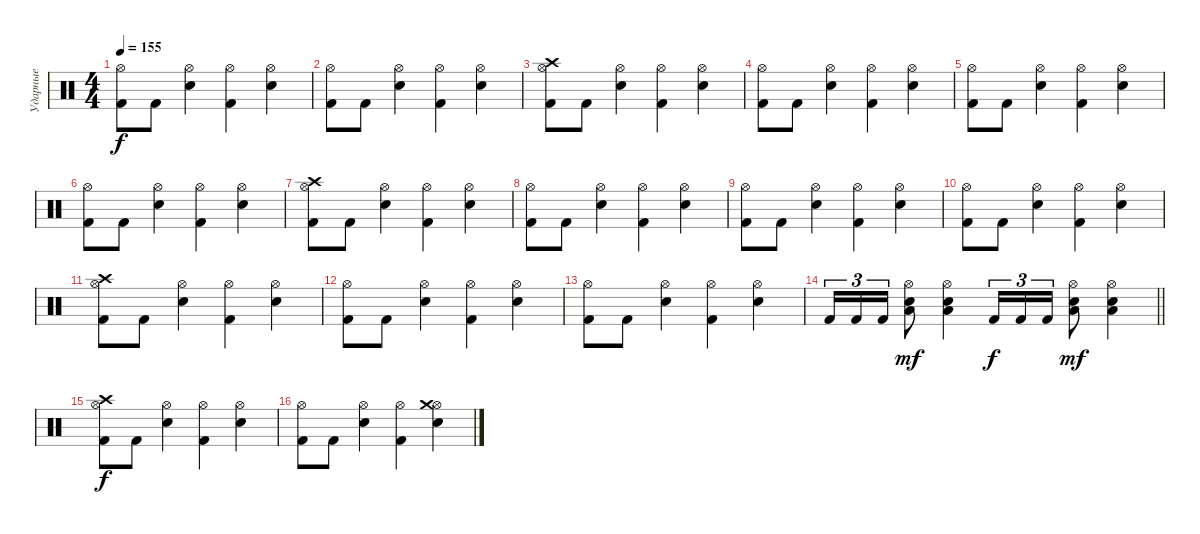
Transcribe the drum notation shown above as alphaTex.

\track ("Ударные" "Ударные") {instrument percussion}
\staff {score}
\articulation defaults
\ts (4 4)
\tempo 155
\clef neutral
\ks c
("Kick (hit) 2" "Hi-Hat (open)").8{dy f} "Kick (hit) 2".8 ("Snare (hit) 2" "Hi-Hat (open)").4 ("Kick (hit) 2" "Hi-Hat (open)").4 ("Snare (hit) 2" "Hi-Hat (open)").4 |
("Kick (hit) 2" "Hi-Hat (open)").8 "Kick (hit) 2".8 ("Snare (hit) 2" "Hi-Hat (open)").4 ("Kick (hit) 2" "Hi-Hat (open)").4 ("Snare (hit) 2" "Hi-Hat (open)").4 |
("Kick (hit) 2" "Hi-Hat (open)" "Crash high (hit)").8 "Kick (hit) 2".8 ("Snare (hit) 2" "Hi-Hat (open)").4 ("Kick (hit) 2" "Hi-Hat (open)").4 ("Snare (hit) 2" "Hi-Hat (open)").4 |
("Kick (hit) 2" "Hi-Hat (open)").8 "Kick (hit) 2".8 ("Snare (hit) 2" "Hi-Hat (open)").4 ("Kick (hit) 2" "Hi-Hat (open)").4 ("Snare (hit) 2" "Hi-Hat (open)").4 |
("Kick (hit) 2" "Hi-Hat (open)").8 "Kick (hit) 2".8 ("Snare (hit) 2" "Hi-Hat (open)").4 ("Kick (hit) 2" "Hi-Hat (open)").4 ("Snare (hit) 2" "Hi-Hat (open)").4 |
("Kick (hit) 2" "Hi-Hat (open)").8 "Kick (hit) 2".8 ("Snare (hit) 2" "Hi-Hat (open)").4 ("Kick (hit) 2" "Hi-Hat (open)").4 ("Snare (hit) 2" "Hi-Hat (open)").4 |
("Kick (hit) 2" "Hi-Hat (open)" "Crash high (hit)").8 "Kick (hit) 2".8 ("Snare (hit) 2" "Hi-Hat (open)").4 ("Kick (hit) 2" "Hi-Hat (open)").4 ("Snare (hit) 2" "Hi-Hat (open)").4 |
("Kick (hit) 2" "Hi-Hat (open)").8 "Kick (hit) 2".8 ("Snare (hit) 2" "Hi-Hat (open)").4 ("Kick (hit) 2" "Hi-Hat (open)").4 ("Snare (hit) 2" "Hi-Hat (open)").4 |
("Kick (hit) 2" "Hi-Hat (open)").8 "Kick (hit) 2".8 ("Snare (hit) 2" "Hi-Hat (open)").4 ("Kick (hit) 2" "Hi-Hat (open)").4 ("Snare (hit) 2" "Hi-Hat (open)").4 |
("Kick (hit) 2" "Hi-Hat (open)").8 "Kick (hit) 2".8 ("Snare (hit) 2" "Hi-Hat (open)").4 ("Kick (hit) 2" "Hi-Hat (open)").4 ("Snare (hit) 2" "Hi-Hat (open)").4 |
("Kick (hit) 2" "Hi-Hat (open)" "Crash high (hit)").8 "Kick (hit) 2".8 ("Snare (hit) 2" "Hi-Hat (open)").4 ("Kick (hit) 2" "Hi-Hat (open)").4 ("Snare (hit) 2" "Hi-Hat (open)").4 |
("Kick (hit) 2" "Hi-Hat (open)").8 "Kick (hit) 2".8 ("Snare (hit) 2" "Hi-Hat (open)").4 ("Kick (hit) 2" "Hi-Hat (open)").4 ("Snare (hit) 2" "Hi-Hat (open)").4 |
("Kick (hit) 2" "Hi-Hat (open)").8 "Kick (hit) 2".8 ("Snare (hit) 2" "Hi-Hat (open)").4 ("Kick (hit) 2" "Hi-Hat (open)").4 ("Snare (hit) 2" "Hi-Hat (open)").4 |
\barLineRight lightlight "Kick (hit) 2".16{tu (3 2)} "Kick (hit) 2".16{tu (3 2)} "Kick (hit) 2".16{tu (3 2)}
("Snare (hit) 2" "Hi-Hat (open)" "Low Floor Tom (hit)").8{dy mf} ("Snare (hit) 2" "Hi-Hat (open)" "Low Floor Tom (hit)").4 "Kick (hit) 2".16{tu (3 2) dy f} "Kick (hit) 2".16{tu (3 2)} "Kick (hit) 2".16{tu (3 2)} ("Snare (hit) 2" "Hi-Hat (open)" "Low Floor Tom (hit)").8{dy mf} ("Snare (hit) 2" "Hi-Hat (open)" "Low Floor Tom (hit)").4 |
\section ("" "")
("Kick (hit) 2" "Hi-Hat (open)" "Crash high (hit)").8{dy f} "Kick (hit) 2".8 ("Snare (hit) 2" "Hi-Hat (open)").4 ("Kick (hit) 2" "Hi-Hat (open)").4 ("Snare (hit) 2" "Hi-Hat (open)").4 |
("Kick (hit) 2" "Hi-Hat (open)").8 "Kick (hit) 2".8 ("Snare (hit) 2" "Hi-Hat (open)").4 ("Kick (hit) 2" "Hi-Hat (open)").4 ("Snare (hit) 2" "Hi-Hat (open)" "Crash medium (hit)").4
